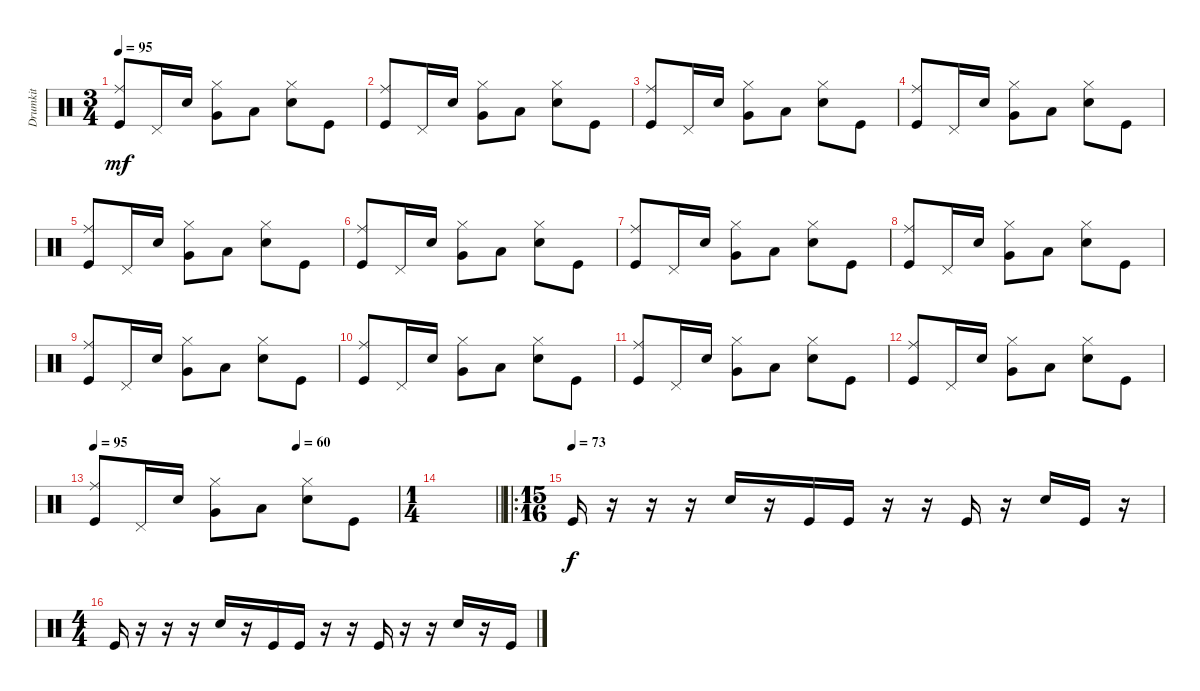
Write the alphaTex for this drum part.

\track ("Drumkit" "Drumkit") {instrument percussion}
\staff {score}
\articulation defaults
\ts (3 4)
\tempo 95
\clef neutral
\ks c
("Ride (middle)" "Kick (hit)").8{dy mf} "Pedal Hi-Hat (hit)".16 "Snare (hit) 2".16 ("Hi-Hat (closed)" "Very Low Tom (hit)").8 "Low Tom (hit)".8 ("Snare (hit) 2" "Hi-Hat (closed)").8 "Kick (hit)".8 |
("Ride (middle)" "Kick (hit)").8 "Pedal Hi-Hat (hit)".16 "Snare (hit) 2".16 ("Hi-Hat (closed)" "Very Low Tom (hit)").8 "Low Tom (hit)".8 ("Snare (hit) 2" "Hi-Hat (closed)").8 "Kick (hit)".8 |
("Ride (middle)" "Kick (hit)").8 "Pedal Hi-Hat (hit)".16 "Snare (hit) 2".16 ("Hi-Hat (closed)" "Very Low Tom (hit)").8 "Low Tom (hit)".8 ("Snare (hit) 2" "Hi-Hat (closed)").8 "Kick (hit)".8 |
("Ride (middle)" "Kick (hit)").8 "Pedal Hi-Hat (hit)".16 "Snare (hit) 2".16 ("Hi-Hat (closed)" "Very Low Tom (hit)").8 "Low Tom (hit)".8 ("Snare (hit) 2" "Hi-Hat (closed)").8 "Kick (hit)".8 |
("Ride (middle)" "Kick (hit)").8 "Pedal Hi-Hat (hit)".16 "Snare (hit) 2".16 ("Hi-Hat (closed)" "Very Low Tom (hit)").8 "Low Tom (hit)".8 ("Snare (hit) 2" "Hi-Hat (closed)").8 "Kick (hit)".8 |
("Ride (middle)" "Kick (hit)").8 "Pedal Hi-Hat (hit)".16 "Snare (hit) 2".16 ("Hi-Hat (closed)" "Very Low Tom (hit)").8 "Low Tom (hit)".8 ("Snare (hit) 2" "Hi-Hat (closed)").8 "Kick (hit)".8 |
("Ride (middle)" "Kick (hit)").8 "Pedal Hi-Hat (hit)".16 "Snare (hit) 2".16 ("Hi-Hat (closed)" "Very Low Tom (hit)").8 "Low Tom (hit)".8 ("Snare (hit) 2" "Hi-Hat (closed)").8 "Kick (hit)".8 |
("Ride (middle)" "Kick (hit)").8 "Pedal Hi-Hat (hit)".16 "Snare (hit) 2".16 ("Hi-Hat (closed)" "Very Low Tom (hit)").8 "Low Tom (hit)".8 ("Snare (hit) 2" "Hi-Hat (closed)").8 "Kick (hit)".8 |
("Ride (middle)" "Kick (hit)").8 "Pedal Hi-Hat (hit)".16 "Snare (hit) 2".16 ("Hi-Hat (closed)" "Very Low Tom (hit)").8 "Low Tom (hit)".8 ("Snare (hit) 2" "Hi-Hat (closed)").8 "Kick (hit)".8 |
("Ride (middle)" "Kick (hit)").8 "Pedal Hi-Hat (hit)".16 "Snare (hit) 2".16 ("Hi-Hat (closed)" "Very Low Tom (hit)").8 "Low Tom (hit)".8 ("Snare (hit) 2" "Hi-Hat (closed)").8 "Kick (hit)".8 |
("Ride (middle)" "Kick (hit)").8 "Pedal Hi-Hat (hit)".16 "Snare (hit) 2".16 ("Hi-Hat (closed)" "Very Low Tom (hit)").8 "Low Tom (hit)".8 ("Snare (hit) 2" "Hi-Hat (closed)").8 "Kick (hit)".8 |
("Ride (middle)" "Kick (hit)").8 "Pedal Hi-Hat (hit)".16 "Snare (hit) 2".16 ("Hi-Hat (closed)" "Very Low Tom (hit)").8 "Low Tom (hit)".8 ("Snare (hit) 2" "Hi-Hat (closed)").8 "Kick (hit)".8 |
\tempo 95
\tempo (60 0.6666666666666666)
("Ride (middle)" "Kick (hit)").8 "Pedal Hi-Hat (hit)".16 "Snare (hit) 2".16 ("Hi-Hat (closed)" "Very Low Tom (hit)").8 "Low Tom (hit)".8 ("Snare (hit) 2" "Hi-Hat (closed)").8 "Kick (hit)".8 |
\ts (1 4)
\barLineRight lightlight
|
\ro
\ts (15 16)
\section ("" "")
\tempo (73)
"Kick (hit)".16{dy f} r.16 r.16 r.16 "Snare (hit) 2".16 r.16 "Kick (hit)".16 "Kick (hit)".16 r.16 r.16 "Kick (hit)".16 r.16 "Snare (hit) 2".16 "Kick (hit)".16 r.16 |
\ts (4 4)
"Kick (hit)".16 r.16 r.16 r.16 "Snare (hit) 2".16 r.16 "Kick (hit)".16 "Kick (hit)".16 r.16 r.16 "Kick (hit)".16 r.16 r.16 "Snare (hit) 2".16 r.16 "Kick (hit)".16
